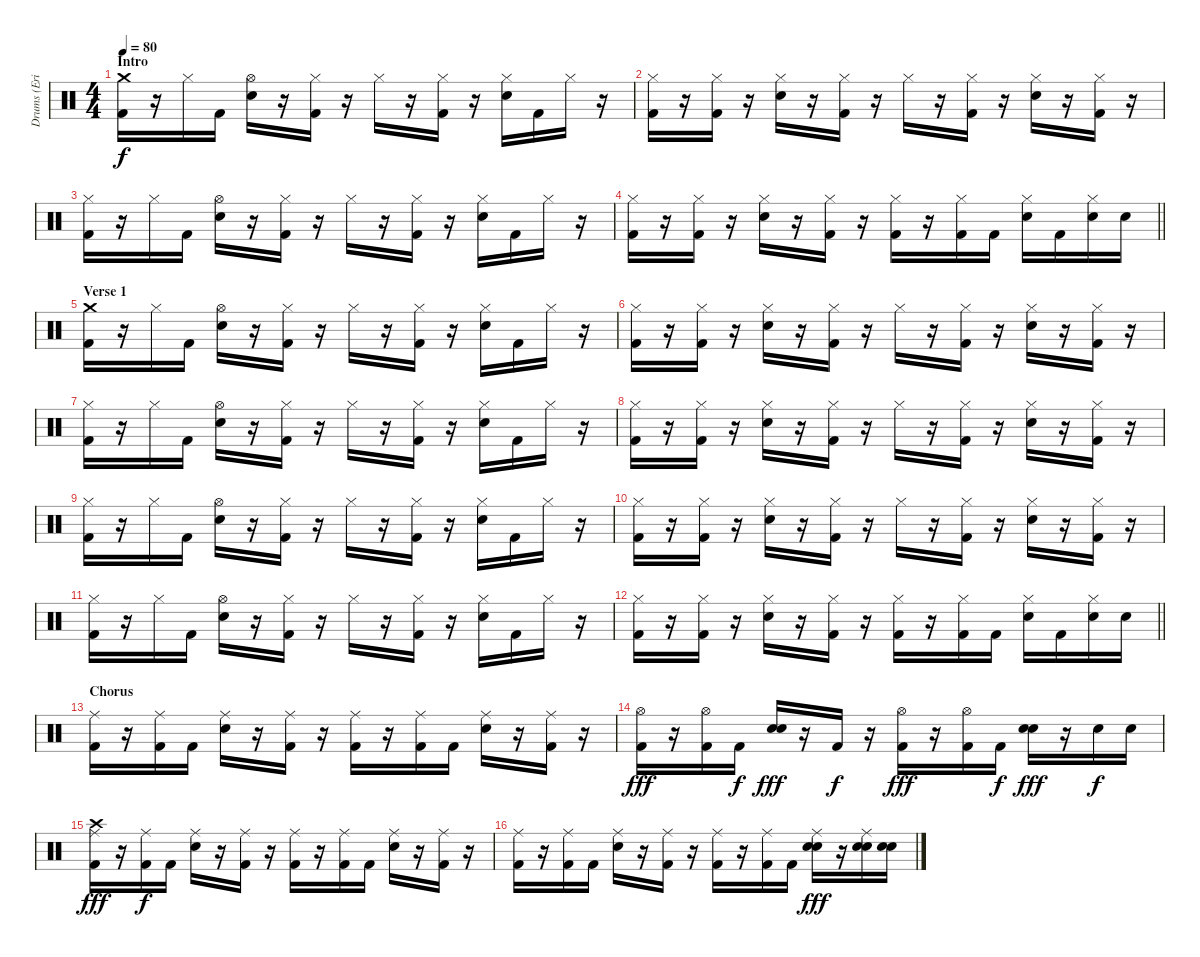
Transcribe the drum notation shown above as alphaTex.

\track ("Drums (Eric Kretz)" "Drums (Eri") {instrument percussion}
\staff {score}
\articulation defaults
\ts (4 4)
\section ("" "Intro")
\tempo 80
\clef neutral
\ks c
("Crash medium (hit)" "Kick (hit) 2").16{dy f} r.16 "Hi-Hat (closed)".16 "Kick (hit) 2".16 ("Hi-Hat (open)" "Electric Snare (hit)").16 r.16 ("Hi-Hat (closed)" "Kick (hit) 2").16 r.16 "Hi-Hat (closed)".16 r.16 ("Hi-Hat (closed)" "Kick (hit) 2").16 r.16 ("Hi-Hat (closed)" "Electric Snare (hit)").16 "Kick (hit) 2".16 "Hi-Hat (closed)".16 r.16 |
("Hi-Hat (closed)" "Kick (hit) 2").16 r.16 ("Hi-Hat (closed)" "Kick (hit) 2").16 r.16 ("Hi-Hat (closed)" "Electric Snare (hit)").16 r.16 ("Hi-Hat (closed)" "Kick (hit) 2").16 r.16 "Hi-Hat (closed)".16 r.16 ("Hi-Hat (closed)" "Kick (hit) 2").16 r.16 ("Hi-Hat (closed)" "Electric Snare (hit)").16 r.16 ("Hi-Hat (closed)" "Kick (hit) 2").16 r.16 |
("Hi-Hat (closed)" "Kick (hit) 2").16 r.16 "Hi-Hat (closed)".16 "Kick (hit) 2".16 ("Hi-Hat (open)" "Electric Snare (hit)").16 r.16 ("Hi-Hat (closed)" "Kick (hit) 2").16 r.16 "Hi-Hat (closed)".16 r.16 ("Hi-Hat (closed)" "Kick (hit) 2").16 r.16 ("Hi-Hat (closed)" "Electric Snare (hit)").16 "Kick (hit) 2".16 "Hi-Hat (closed)".16 r.16 |
\barLineRight lightlight
("Hi-Hat (closed)" "Kick (hit) 2").16 r.16 ("Hi-Hat (closed)" "Kick (hit) 2").16 r.16 ("Hi-Hat (closed)" "Electric Snare (hit)").16 r.16 ("Hi-Hat (closed)" "Kick (hit) 2").16 r.16 ("Hi-Hat (closed)" "Kick (hit) 2").16 r.16 ("Hi-Hat (closed)" "Kick (hit) 2").16 "Kick (hit) 2".16 ("Hi-Hat (closed)" "Electric Snare (hit)").16 "Kick (hit) 2".16 ("Hi-Hat (closed)" "Electric Snare (hit)").16 "Electric Snare (hit)".16 |
\section ("" "Verse 1")
("Crash medium (hit)" "Kick (hit) 2").16 r.16 "Hi-Hat (closed)".16 "Kick (hit) 2".16 ("Hi-Hat (open)" "Electric Snare (hit)").16 r.16 ("Hi-Hat (closed)" "Kick (hit) 2").16 r.16 "Hi-Hat (closed)".16 r.16 ("Hi-Hat (closed)" "Kick (hit) 2").16 r.16 ("Hi-Hat (closed)" "Electric Snare (hit)").16 "Kick (hit) 2".16 "Hi-Hat (closed)".16 r.16 |
("Hi-Hat (closed)" "Kick (hit) 2").16 r.16 ("Hi-Hat (closed)" "Kick (hit) 2").16 r.16 ("Hi-Hat (closed)" "Electric Snare (hit)").16 r.16 ("Hi-Hat (closed)" "Kick (hit) 2").16 r.16 "Hi-Hat (closed)".16 r.16 ("Hi-Hat (closed)" "Kick (hit) 2").16 r.16 ("Hi-Hat (closed)" "Electric Snare (hit)").16 r.16 ("Hi-Hat (closed)" "Kick (hit) 2").16 r.16 |
("Hi-Hat (closed)" "Kick (hit) 2").16 r.16 "Hi-Hat (closed)".16 "Kick (hit) 2".16 ("Hi-Hat (open)" "Electric Snare (hit)").16 r.16 ("Hi-Hat (closed)" "Kick (hit) 2").16 r.16 "Hi-Hat (closed)".16 r.16 ("Hi-Hat (closed)" "Kick (hit) 2").16 r.16 ("Hi-Hat (closed)" "Electric Snare (hit)").16 "Kick (hit) 2".16 "Hi-Hat (closed)".16 r.16 |
("Hi-Hat (closed)" "Kick (hit) 2").16 r.16 ("Hi-Hat (closed)" "Kick (hit) 2").16 r.16 ("Hi-Hat (closed)" "Electric Snare (hit)").16 r.16 ("Hi-Hat (closed)" "Kick (hit) 2").16 r.16 "Hi-Hat (closed)".16 r.16 ("Hi-Hat (closed)" "Kick (hit) 2").16 r.16 ("Hi-Hat (closed)" "Electric Snare (hit)").16 r.16 ("Hi-Hat (closed)" "Kick (hit) 2").16 r.16 |
("Hi-Hat (closed)" "Kick (hit) 2").16 r.16 "Hi-Hat (closed)".16 "Kick (hit) 2".16 ("Hi-Hat (open)" "Electric Snare (hit)").16 r.16 ("Hi-Hat (closed)" "Kick (hit) 2").16 r.16 "Hi-Hat (closed)".16 r.16 ("Hi-Hat (closed)" "Kick (hit) 2").16 r.16 ("Hi-Hat (closed)" "Electric Snare (hit)").16 "Kick (hit) 2".16 "Hi-Hat (closed)".16 r.16 |
("Hi-Hat (closed)" "Kick (hit) 2").16 r.16 ("Hi-Hat (closed)" "Kick (hit) 2").16 r.16 ("Hi-Hat (closed)" "Electric Snare (hit)").16 r.16 ("Hi-Hat (closed)" "Kick (hit) 2").16 r.16 "Hi-Hat (closed)".16 r.16 ("Hi-Hat (closed)" "Kick (hit) 2").16 r.16 ("Hi-Hat (closed)" "Electric Snare (hit)").16 r.16 ("Hi-Hat (closed)" "Kick (hit) 2").16 r.16 |
("Hi-Hat (closed)" "Kick (hit) 2").16 r.16 "Hi-Hat (closed)".16 "Kick (hit) 2".16 ("Hi-Hat (open)" "Electric Snare (hit)").16 r.16 ("Hi-Hat (closed)" "Kick (hit) 2").16 r.16 "Hi-Hat (closed)".16 r.16 ("Hi-Hat (closed)" "Kick (hit) 2").16 r.16 ("Hi-Hat (closed)" "Electric Snare (hit)").16 "Kick (hit) 2".16 "Hi-Hat (closed)".16 r.16 |
\barLineRight lightlight
("Hi-Hat (closed)" "Kick (hit) 2").16 r.16 ("Hi-Hat (closed)" "Kick (hit) 2").16 r.16 ("Hi-Hat (closed)" "Electric Snare (hit)").16 r.16 ("Hi-Hat (closed)" "Kick (hit) 2").16 r.16 ("Hi-Hat (closed)" "Kick (hit) 2").16 r.16 ("Hi-Hat (closed)" "Kick (hit) 2").16 "Kick (hit) 2".16 ("Hi-Hat (closed)" "Electric Snare (hit)").16 "Kick (hit) 2".16 ("Hi-Hat (closed)" "Electric Snare (hit)").16 "Electric Snare (hit)".16 |
\section ("" "Chorus")
("Ride (middle)" "Kick (hit) 2").16 r.16 ("Ride (middle)" "Kick (hit) 2").16 "Kick (hit) 2".16 ("Ride (middle)" "Electric Snare (hit)").16 r.16 ("Ride (middle)" "Kick (hit) 2").16 r.16 ("Ride (middle)" "Kick (hit) 2").16 r.16 ("Ride (middle)" "Kick (hit) 2").16 "Kick (hit) 2".16 ("Ride (middle)" "Electric Snare (hit)").16 r.16 ("Ride (middle)" "Kick (hit) 2").16 r.16 |
("Hi-Hat (open)" "Kick (hit) 2").16{dy fff} r.16 ("Hi-Hat (open)" "Kick (hit) 2").16 "Kick (hit) 2".16{dy f} ("Snare (hit) 2" "Electric Snare (hit)").16{dy fff} r.16 "Kick (hit) 2".16{dy f} r.16 ("Hi-Hat (open)" "Kick (hit) 2").16{dy fff} r.16 ("Hi-Hat (open)" "Kick (hit) 2").16 "Kick (hit) 2".16{dy f} ("Snare (hit) 2" "Electric Snare (hit)").16{dy fff} r.16 "Electric Snare (hit)".16{dy f} "Electric Snare (hit)".16 |
("Crash high (hit)" "Ride (middle)" "Kick (hit) 2").16{dy fff} r.16 ("Ride (middle)" "Kick (hit) 2").16{dy f} "Kick (hit) 2".16 ("Ride (middle)" "Electric Snare (hit)").16 r.16 ("Ride (middle)" "Kick (hit) 2").16 r.16 ("Ride (middle)" "Kick (hit) 2").16 r.16 ("Ride (middle)" "Kick (hit) 2").16 "Kick (hit) 2".16 ("Ride (middle)" "Electric Snare (hit)").16 r.16 ("Ride (middle)" "Kick (hit) 2").16 r.16 |
("Ride (middle)" "Kick (hit) 2").16 r.16 ("Ride (middle)" "Kick (hit) 2").16 "Kick (hit) 2".16 ("Ride (middle)" "Electric Snare (hit)").16 r.16 ("Ride (middle)" "Kick (hit) 2").16 r.16 ("Ride (middle)" "Kick (hit) 2").16 r.16 ("Ride (middle)" "Kick (hit) 2").16 "Kick (hit) 2".16 ("Ride (middle)" "Snare (hit) 2" "Electric Snare (hit)").16{dy fff} r.16 ("Ride (middle)" "Snare (hit) 2" "Electric Snare (hit)").16 ("Snare (hit) 2" "Electric Snare (hit)").16
